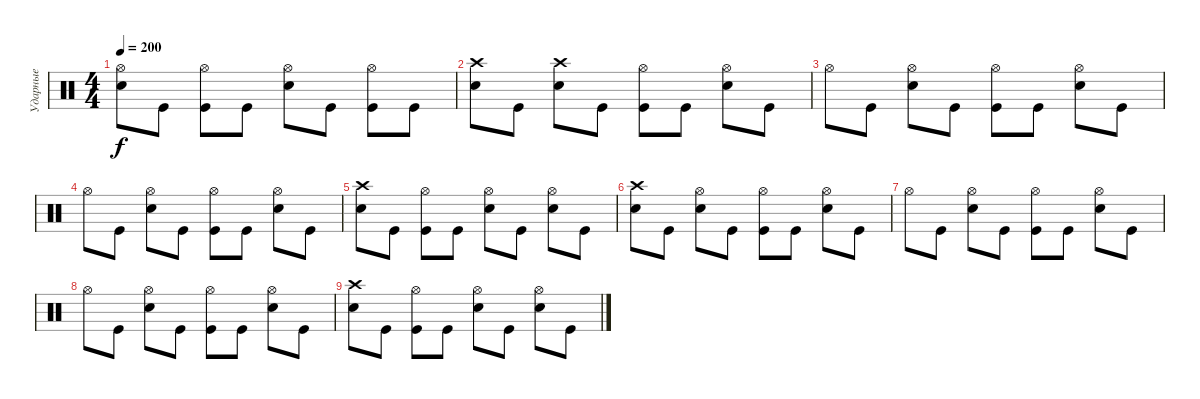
\track ("Ударные" "Ударные") {instrument percussion}
\staff {score}
\articulation defaults
\ts (4 4)
\tempo 200
\clef neutral
\ks c
("Snare (hit) 2" "Hi-Hat (open)").8{dy f} "Kick (hit)".8 ("Kick (hit)" "Hi-Hat (open)").8 "Kick (hit)".8 ("Snare (hit) 2" "Hi-Hat (open)").8 "Kick (hit)".8 ("Kick (hit)" "Hi-Hat (open)").8 "Kick (hit)".8 |
("Crash high (hit)" "Snare (hit) 2").8 "Kick (hit)".8 ("Crash high (hit)" "Snare (hit) 2").8 "Kick (hit)".8 ("Hi-Hat (open)" "Kick (hit)").8 "Kick (hit)".8 ("Hi-Hat (open)" "Snare (hit) 2").8 "Kick (hit)".8 |
"Hi-Hat (open)".8 "Kick (hit)".8 ("Hi-Hat (open)" "Snare (hit) 2").8 "Kick (hit)".8 ("Hi-Hat (open)" "Kick (hit)").8 "Kick (hit)".8 ("Hi-Hat (open)" "Snare (hit) 2").8 "Kick (hit)".8 |
"Hi-Hat (open)".8 "Kick (hit)".8 ("Hi-Hat (open)" "Snare (hit) 2").8 "Kick (hit)".8 ("Hi-Hat (open)" "Kick (hit)").8 "Kick (hit)".8 ("Hi-Hat (open)" "Snare (hit) 2").8 "Kick (hit)".8 |
("Snare (hit) 2" "Crash high (hit)").8 "Kick (hit)".8 ("Kick (hit)" "Hi-Hat (open)").8 "Kick (hit)".8 ("Snare (hit) 2" "Hi-Hat (open)").8 "Kick (hit)".8 ("Snare (hit) 2" "Hi-Hat (open)").8 "Kick (hit)".8 |
("Crash high (hit)" "Snare (hit) 2").8 "Kick (hit)".8 ("Hi-Hat (open)" "Snare (hit) 2").8 "Kick (hit)".8 ("Hi-Hat (open)" "Kick (hit)").8 "Kick (hit)".8 ("Hi-Hat (open)" "Snare (hit) 2").8 "Kick (hit)".8 |
"Hi-Hat (open)".8 "Kick (hit)".8 ("Hi-Hat (open)" "Snare (hit) 2").8 "Kick (hit)".8 ("Hi-Hat (open)" "Kick (hit)").8 "Kick (hit)".8 ("Hi-Hat (open)" "Snare (hit) 2").8 "Kick (hit)".8 |
"Hi-Hat (open)".8 "Kick (hit)".8 ("Hi-Hat (open)" "Snare (hit) 2").8 "Kick (hit)".8 ("Hi-Hat (open)" "Kick (hit)").8 "Kick (hit)".8 ("Hi-Hat (open)" "Snare (hit) 2").8 "Kick (hit)".8 |
("Snare (hit) 2" "Crash high (hit)").8 "Kick (hit)".8 ("Kick (hit)" "Hi-Hat (open)").8 "Kick (hit)".8 ("Snare (hit) 2" "Hi-Hat (open)").8 "Kick (hit)".8 ("Snare (hit) 2" "Hi-Hat (open)").8 "Kick (hit)".8
